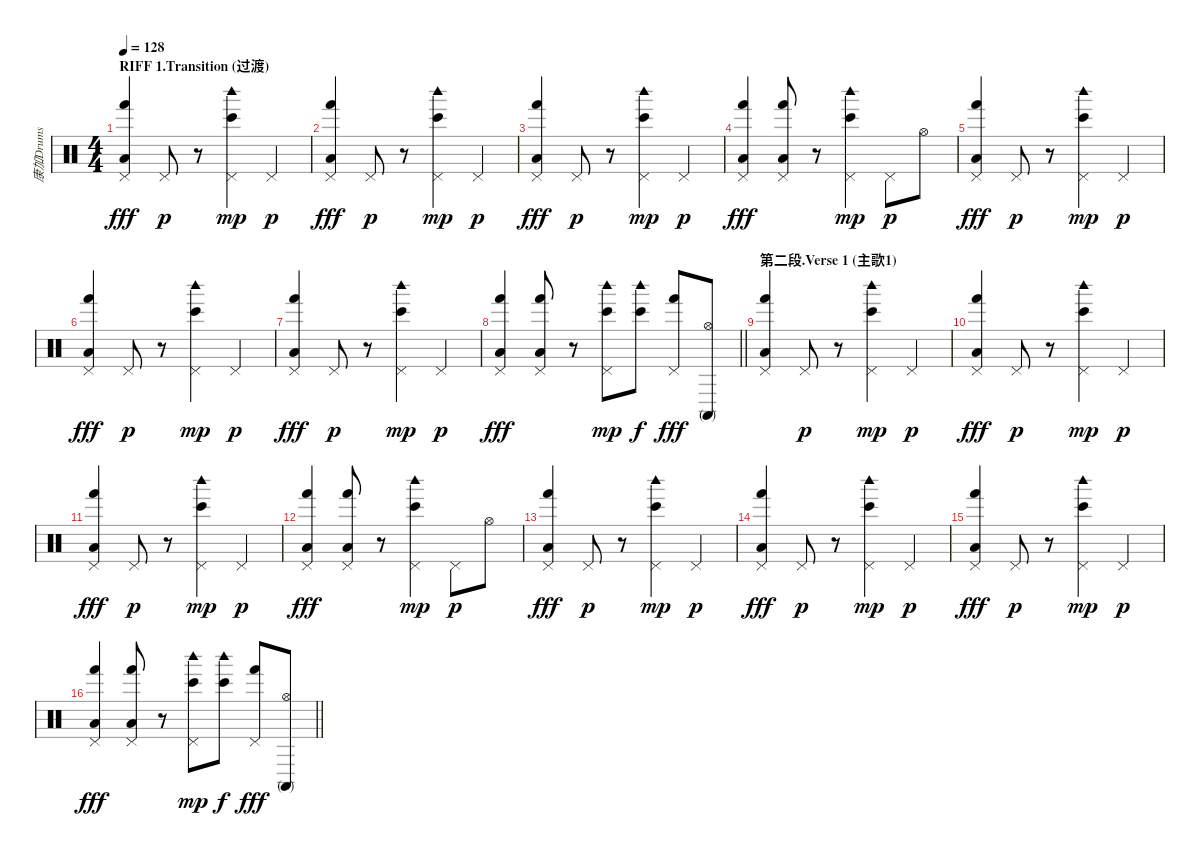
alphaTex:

\track ("康加Drums" "康加Drums") {instrument percussion}
\staff {score}
\articulation defaults
\ts (4 4)
\section ("" "RIFF 1.Transition (过渡)")
\tempo 128
\clef neutral
\ks c
("Pedal Hi-Hat (hit)" "Hand (hit)" "Low Floor Tom (hit)").4{dy fff} "Pedal Hi-Hat (hit)".8{dy p} r.8 ("Bongo High (hit)" "Woodblock high (hit)" "Pedal Hi-Hat (hit)").4{dy mp} "Pedal Hi-Hat (hit)".4{dy p} |
("Pedal Hi-Hat (hit)" "Hand (hit)" "Low Floor Tom (hit)").4{dy fff} "Pedal Hi-Hat (hit)".8{dy p} r.8 ("Bongo High (hit)" "Woodblock high (hit)" "Pedal Hi-Hat (hit)").4{dy mp} "Pedal Hi-Hat (hit)".4{dy p} |
("Pedal Hi-Hat (hit)" "Hand (hit)" "Low Floor Tom (hit)").4{dy fff} "Pedal Hi-Hat (hit)".8{dy p} r.8 ("Bongo High (hit)" "Woodblock high (hit)" "Pedal Hi-Hat (hit)").4{dy mp} "Pedal Hi-Hat (hit)".4{dy p} |
("Pedal Hi-Hat (hit)" "Hand (hit)" "Low Floor Tom (hit)").4{dy fff} ("Pedal Hi-Hat (hit)" "Hand (hit)" "Low Floor Tom (hit)").8 r.8 ("Bongo High (hit)" "Woodblock high (hit)" "Pedal Hi-Hat (hit)").4{dy mp} "Pedal Hi-Hat (hit)".8{dy p} "Hi-Hat (open)".8 |
("Pedal Hi-Hat (hit)" "Hand (hit)" "Low Floor Tom (hit)").4{dy fff} "Pedal Hi-Hat (hit)".8{dy p} r.8 ("Bongo High (hit)" "Woodblock high (hit)" "Pedal Hi-Hat (hit)").4{dy mp} "Pedal Hi-Hat (hit)".4{dy p} |
("Pedal Hi-Hat (hit)" "Hand (hit)" "Low Floor Tom (hit)").4{dy fff} "Pedal Hi-Hat (hit)".8{dy p} r.8 ("Bongo High (hit)" "Woodblock high (hit)" "Pedal Hi-Hat (hit)").4{dy mp} "Pedal Hi-Hat (hit)".4{dy p} |
("Pedal Hi-Hat (hit)" "Hand (hit)" "Low Floor Tom (hit)").4{dy fff} "Pedal Hi-Hat (hit)".8{dy p} r.8 ("Bongo High (hit)" "Woodblock high (hit)" "Pedal Hi-Hat (hit)").4{dy mp} "Pedal Hi-Hat (hit)".4{dy p} |
\barLineRight lightlight
("Pedal Hi-Hat (hit)" "Hand (hit)" "Low Floor Tom (hit)").4{dy fff} ("Pedal Hi-Hat (hit)" "Hand (hit)" "Low Floor Tom (hit)").8 r.8 ("Bongo High (hit)" "Woodblock high (hit)" "Pedal Hi-Hat (hit)").8{dy mp} ("Bongo High (hit)" "Woodblock high (hit)").8{dy f} ("Pedal Hi-Hat (hit)" "Hand (hit)").8{dy fff} ("Hi-Hat (open)" "Conga high (mute)").8 |
\section ("" "第二段.Verse 1 (主歌1) ")
("Pedal Hi-Hat (hit)" "Hand (hit)" "Low Floor Tom (hit)").4 "Pedal Hi-Hat (hit)".8{dy p} r.8 ("Bongo High (hit)" "Woodblock high (hit)" "Pedal Hi-Hat (hit)").4{dy mp} "Pedal Hi-Hat (hit)".4{dy p} |
("Pedal Hi-Hat (hit)" "Hand (hit)" "Low Floor Tom (hit)").4{dy fff} "Pedal Hi-Hat (hit)".8{dy p} r.8 ("Bongo High (hit)" "Woodblock high (hit)" "Pedal Hi-Hat (hit)").4{dy mp} "Pedal Hi-Hat (hit)".4{dy p} |
("Pedal Hi-Hat (hit)" "Hand (hit)" "Low Floor Tom (hit)").4{dy fff} "Pedal Hi-Hat (hit)".8{dy p} r.8 ("Bongo High (hit)" "Woodblock high (hit)" "Pedal Hi-Hat (hit)").4{dy mp} "Pedal Hi-Hat (hit)".4{dy p} |
("Pedal Hi-Hat (hit)" "Hand (hit)" "Low Floor Tom (hit)").4{dy fff} ("Pedal Hi-Hat (hit)" "Hand (hit)" "Low Floor Tom (hit)").8 r.8 ("Bongo High (hit)" "Woodblock high (hit)" "Pedal Hi-Hat (hit)").4{dy mp} "Pedal Hi-Hat (hit)".8{dy p} "Hi-Hat (open)".8 |
("Pedal Hi-Hat (hit)" "Hand (hit)" "Low Floor Tom (hit)").4{dy fff} "Pedal Hi-Hat (hit)".8{dy p} r.8 ("Bongo High (hit)" "Woodblock high (hit)" "Pedal Hi-Hat (hit)").4{dy mp} "Pedal Hi-Hat (hit)".4{dy p} |
("Pedal Hi-Hat (hit)" "Hand (hit)" "Low Floor Tom (hit)").4{dy fff} "Pedal Hi-Hat (hit)".8{dy p} r.8 ("Bongo High (hit)" "Woodblock high (hit)" "Pedal Hi-Hat (hit)").4{dy mp} "Pedal Hi-Hat (hit)".4{dy p} |
("Pedal Hi-Hat (hit)" "Hand (hit)" "Low Floor Tom (hit)").4{dy fff} "Pedal Hi-Hat (hit)".8{dy p} r.8 ("Bongo High (hit)" "Woodblock high (hit)" "Pedal Hi-Hat (hit)").4{dy mp} "Pedal Hi-Hat (hit)".4{dy p} |
\barLineRight lightlight
("Pedal Hi-Hat (hit)" "Hand (hit)" "Low Floor Tom (hit)").4{dy fff} ("Pedal Hi-Hat (hit)" "Hand (hit)" "Low Floor Tom (hit)").8 r.8 ("Bongo High (hit)" "Woodblock high (hit)" "Pedal Hi-Hat (hit)").8{dy mp} ("Bongo High (hit)" "Woodblock high (hit)").8{dy f} ("Pedal Hi-Hat (hit)" "Hand (hit)").8{dy fff} ("Hi-Hat (open)" "Conga high (mute)").8
